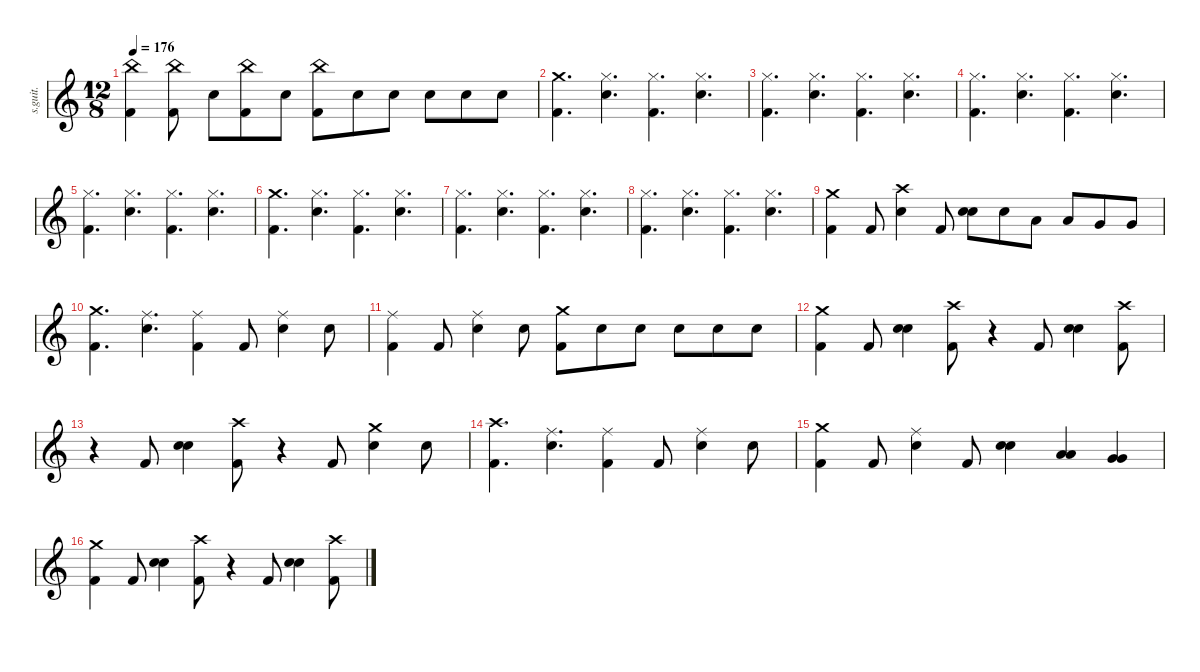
\defaultSystemsLayout 4
\hideDynamics
\bracketExtendMode nobrackets
\track ("Vinnie Paul" "s.guit.") {instrument percussion}
\staff {score}
\articulation defaults
\ts (12 8)
\tempo 176
\clef g2
\ks c
("China (hit)" "Kick (hit) 2").4{lyrics (0 "") lyrics (1 "") lyrics (2 "") lyrics (3 "") lyrics (4 "") dy f} ("China (hit)" "Kick (hit) 2").8{lyrics (0 "") lyrics (1 "") lyrics (2 "") lyrics (3 "") lyrics (4 "")} "Snare (hit) 2".8{lyrics (0 "") lyrics (1 "") lyrics (2 "") lyrics (3 "") lyrics (4 "")} ("China (hit)" "Kick (hit) 2").8{lyrics (0 "") lyrics (1 "") lyrics (2 "") lyrics (3 "") lyrics (4 "")} "Snare (hit) 2".8{lyrics (0 "") lyrics (1 "") lyrics (2 "") lyrics (3 "") lyrics (4 "")} ("China (hit)" "Kick (hit) 2").8{lyrics (0 "") lyrics (1 "") lyrics (2 "") lyrics (3 "") lyrics (4 "")} "Snare (hit) 2".8{lyrics (0 "") lyrics (1 "") lyrics (2 "") lyrics (3 "") lyrics (4 "")} "Snare (hit) 2".8{lyrics (0 "") lyrics (1 "") lyrics (2 "") lyrics (3 "") lyrics (4 "")} "Snare (hit) 2".8{lyrics (0 "") lyrics (1 "") lyrics (2 "") lyrics (3 "") lyrics (4 "")} "Snare (hit) 2".8{lyrics (0 "") lyrics (1 "") lyrics (2 "") lyrics (3 "") lyrics (4 "")} "Snare (hit) 2".8{lyrics (0 "") lyrics (1 "") lyrics (2 "") lyrics (3 "") lyrics (4 "")} |
("Crash medium (hit)" "Kick (hit) 2").4{d lyrics (0 "") lyrics (1 "") lyrics (2 "") lyrics (3 "") lyrics (4 "")} ("Hi-Hat (closed)" "Snare (hit) 2").4{d lyrics (0 "") lyrics (1 "") lyrics (2 "") lyrics (3 "") lyrics (4 "")} ("Hi-Hat (closed)" "Kick (hit) 2").4{d lyrics (0 "") lyrics (1 "") lyrics (2 "") lyrics (3 "") lyrics (4 "")} ("Hi-Hat (closed)" "Snare (hit) 2").4{d lyrics (0 "") lyrics (1 "") lyrics (2 "") lyrics (3 "") lyrics (4 "")} |
("Hi-Hat (closed)" "Kick (hit) 2").4{d lyrics (0 "") lyrics (1 "") lyrics (2 "") lyrics (3 "") lyrics (4 "")} ("Hi-Hat (closed)" "Snare (hit) 2").4{d lyrics (0 "") lyrics (1 "") lyrics (2 "") lyrics (3 "") lyrics (4 "")} ("Hi-Hat (closed)" "Kick (hit) 2").4{d lyrics (0 "") lyrics (1 "") lyrics (2 "") lyrics (3 "") lyrics (4 "")} ("Hi-Hat (closed)" "Snare (hit) 2").4{d lyrics (0 "") lyrics (1 "") lyrics (2 "") lyrics (3 "") lyrics (4 "")} |
("Hi-Hat (closed)" "Kick (hit) 2").4{d lyrics (0 "") lyrics (1 "") lyrics (2 "") lyrics (3 "") lyrics (4 "")} ("Hi-Hat (closed)" "Snare (hit) 2").4{d lyrics (0 "") lyrics (1 "") lyrics (2 "") lyrics (3 "") lyrics (4 "")} ("Hi-Hat (closed)" "Kick (hit) 2").4{d lyrics (0 "") lyrics (1 "") lyrics (2 "") lyrics (3 "") lyrics (4 "")} ("Hi-Hat (closed)" "Snare (hit) 2").4{d lyrics (0 "") lyrics (1 "") lyrics (2 "") lyrics (3 "") lyrics (4 "")} |
("Hi-Hat (closed)" "Kick (hit) 2").4{d lyrics (0 "") lyrics (1 "") lyrics (2 "") lyrics (3 "") lyrics (4 "")} ("Hi-Hat (closed)" "Snare (hit) 2").4{d lyrics (0 "") lyrics (1 "") lyrics (2 "") lyrics (3 "") lyrics (4 "")} ("Hi-Hat (closed)" "Kick (hit) 2").4{d lyrics (0 "") lyrics (1 "") lyrics (2 "") lyrics (3 "") lyrics (4 "")} ("Hi-Hat (closed)" "Snare (hit) 2").4{d lyrics (0 "") lyrics (1 "") lyrics (2 "") lyrics (3 "") lyrics (4 "")} |
("Crash medium (hit)" "Kick (hit) 2").4{d lyrics (0 "") lyrics (1 "") lyrics (2 "") lyrics (3 "") lyrics (4 "")} ("Hi-Hat (closed)" "Snare (hit) 2").4{d lyrics (0 "") lyrics (1 "") lyrics (2 "") lyrics (3 "") lyrics (4 "")} ("Hi-Hat (closed)" "Kick (hit) 2").4{d lyrics (0 "") lyrics (1 "") lyrics (2 "") lyrics (3 "") lyrics (4 "")} ("Hi-Hat (closed)" "Snare (hit) 2").4{d lyrics (0 "") lyrics (1 "") lyrics (2 "") lyrics (3 "") lyrics (4 "")} |
("Hi-Hat (closed)" "Kick (hit) 2").4{d lyrics (0 "") lyrics (1 "") lyrics (2 "") lyrics (3 "") lyrics (4 "")} ("Hi-Hat (closed)" "Snare (hit) 2").4{d lyrics (0 "") lyrics (1 "") lyrics (2 "") lyrics (3 "") lyrics (4 "")} ("Hi-Hat (closed)" "Kick (hit) 2").4{d lyrics (0 "") lyrics (1 "") lyrics (2 "") lyrics (3 "") lyrics (4 "")} ("Hi-Hat (closed)" "Snare (hit) 2").4{d lyrics (0 "") lyrics (1 "") lyrics (2 "") lyrics (3 "") lyrics (4 "")} |
("Hi-Hat (closed)" "Kick (hit) 2").4{d lyrics (0 "") lyrics (1 "") lyrics (2 "") lyrics (3 "") lyrics (4 "")} ("Hi-Hat (closed)" "Snare (hit) 2").4{d lyrics (0 "") lyrics (1 "") lyrics (2 "") lyrics (3 "") lyrics (4 "")} ("Hi-Hat (closed)" "Kick (hit) 2").4{d lyrics (0 "") lyrics (1 "") lyrics (2 "") lyrics (3 "") lyrics (4 "")} ("Hi-Hat (closed)" "Snare (hit) 2").4{d lyrics (0 "") lyrics (1 "") lyrics (2 "") lyrics (3 "") lyrics (4 "")} |
("Crash medium (hit)" "Kick (hit) 2").4{lyrics (0 "") lyrics (1 "") lyrics (2 "") lyrics (3 "") lyrics (4 "")} "Kick (hit) 2".8{lyrics (0 "") lyrics (1 "") lyrics (2 "") lyrics (3 "") lyrics (4 "")} ("Crash high (hit)" "Snare (hit) 2").4{lyrics (0 "") lyrics (1 "") lyrics (2 "") lyrics (3 "") lyrics (4 "")} "Kick (hit) 2".8{lyrics (0 "") lyrics (1 "") lyrics (2 "") lyrics (3 "") lyrics (4 "")} ("Snare (hit) 2" "Snare (hit) 2").8{lyrics (0 "") lyrics (1 "") lyrics (2 "") lyrics (3 "") lyrics (4 "")} "Snare (hit) 2".8{lyrics (0 "") lyrics (1 "") lyrics (2 "") lyrics (3 "") lyrics (4 "")} "Low Tom (hit)".8{lyrics (0 "") lyrics (1 "") lyrics (2 "") lyrics (3 "") lyrics (4 "")} "Low Tom (hit)".8{lyrics (0 "") lyrics (1 "") lyrics (2 "") lyrics (3 "") lyrics (4 "")} "Very Low Tom (hit)".8{lyrics (0 "") lyrics (1 "") lyrics (2 "") lyrics (3 "") lyrics (4 "")} "Very Low Tom (hit)".8{lyrics (0 "") lyrics (1 "") lyrics (2 "") lyrics (3 "") lyrics (4 "")} |
("Crash medium (hit)" "Kick (hit) 2").4{d lyrics (0 "") lyrics (1 "") lyrics (2 "") lyrics (3 "") lyrics (4 "")} ("Ride (middle)" "Snare (hit) 2").4{d lyrics (0 "") lyrics (1 "") lyrics (2 "") lyrics (3 "") lyrics (4 "")} ("Ride (middle)" "Kick (hit) 2").4{lyrics (0 "") lyrics (1 "") lyrics (2 "") lyrics (3 "") lyrics (4 "")} "Kick (hit) 2".8{lyrics (0 "") lyrics (1 "") lyrics (2 "") lyrics (3 "") lyrics (4 "")} ("Ride (middle)" "Snare (hit) 2").4{lyrics (0 "") lyrics (1 "") lyrics (2 "") lyrics (3 "") lyrics (4 "")} "Snare (hit) 2".8{lyrics (0 "") lyrics (1 "") lyrics (2 "") lyrics (3 "") lyrics (4 "")} |
("Ride (middle)" "Kick (hit) 2").4{lyrics (0 "") lyrics (1 "") lyrics (2 "") lyrics (3 "") lyrics (4 "")} "Kick (hit) 2".8{lyrics (0 "") lyrics (1 "") lyrics (2 "") lyrics (3 "") lyrics (4 "")} ("Ride (middle)" "Snare (hit) 2").4{lyrics (0 "") lyrics (1 "") lyrics (2 "") lyrics (3 "") lyrics (4 "")} "Snare (hit) 2".8{lyrics (0 "") lyrics (1 "") lyrics (2 "") lyrics (3 "") lyrics (4 "")} ("Crash medium (hit)" "Kick (hit) 2").8{lyrics (0 "") lyrics (1 "") lyrics (2 "") lyrics (3 "") lyrics (4 "")} "Snare (hit) 2".8{lyrics (0 "") lyrics (1 "") lyrics (2 "") lyrics (3 "") lyrics (4 "")} "Snare (hit) 2".8{lyrics (0 "") lyrics (1 "") lyrics (2 "") lyrics (3 "") lyrics (4 "")} "Snare (hit) 2".8{lyrics (0 "") lyrics (1 "") lyrics (2 "") lyrics (3 "") lyrics (4 "")} "Snare (hit) 2".8{lyrics (0 "") lyrics (1 "") lyrics (2 "") lyrics (3 "") lyrics (4 "")} "Snare (hit) 2".8{lyrics (0 "") lyrics (1 "") lyrics (2 "") lyrics (3 "") lyrics (4 "")} |
("Crash medium (hit)" "Kick (hit) 2").4{lyrics (0 "") lyrics (1 "") lyrics (2 "") lyrics (3 "") lyrics (4 "")} "Kick (hit) 2".8{lyrics (0 "") lyrics (1 "") lyrics (2 "") lyrics (3 "") lyrics (4 "")} ("Snare (hit) 2" "Snare (hit) 2").4{lyrics (0 "") lyrics (1 "") lyrics (2 "") lyrics (3 "") lyrics (4 "")} ("Crash high (hit)" "Kick (hit) 2").8{lyrics (0 "") lyrics (1 "") lyrics (2 "") lyrics (3 "") lyrics (4 "")} r.4 "Kick (hit) 2".8{lyrics (0 "") lyrics (1 "") lyrics (2 "") lyrics (3 "") lyrics (4 "")} ("Snare (hit) 2" "Snare (hit) 2").4{lyrics (0 "") lyrics (1 "") lyrics (2 "") lyrics (3 "") lyrics (4 "")} ("Crash high (hit)" "Kick (hit) 2").8{lyrics (0 "") lyrics (1 "") lyrics (2 "") lyrics (3 "") lyrics (4 "")} |
r.4 "Kick (hit) 2".8{lyrics (0 "") lyrics (1 "") lyrics (2 "") lyrics (3 "") lyrics (4 "")} ("Snare (hit) 2" "Snare (hit) 2").4{lyrics (0 "") lyrics (1 "") lyrics (2 "") lyrics (3 "") lyrics (4 "")} ("Crash high (hit)" "Kick (hit) 2").8{lyrics (0 "") lyrics (1 "") lyrics (2 "") lyrics (3 "") lyrics (4 "")} r.4 "Kick (hit) 2".8{lyrics (0 "") lyrics (1 "") lyrics (2 "") lyrics (3 "") lyrics (4 "")} ("Crash medium (hit)" "Snare (hit) 2").4{lyrics (0 "") lyrics (1 "") lyrics (2 "") lyrics (3 "") lyrics (4 "")} "Snare (hit) 2".8{lyrics (0 "") lyrics (1 "") lyrics (2 "") lyrics (3 "") lyrics (4 "")} |
("Crash high (hit)" "Kick (hit) 2").4{d lyrics (0 "") lyrics (1 "") lyrics (2 "") lyrics (3 "") lyrics (4 "")} ("Ride (middle)" "Snare (hit) 2").4{d lyrics (0 "") lyrics (1 "") lyrics (2 "") lyrics (3 "") lyrics (4 "")} ("Ride (middle)" "Kick (hit) 2").4{lyrics (0 "") lyrics (1 "") lyrics (2 "") lyrics (3 "") lyrics (4 "")} "Kick (hit) 2".8{lyrics (0 "") lyrics (1 "") lyrics (2 "") lyrics (3 "") lyrics (4 "")} ("Ride (middle)" "Snare (hit) 2").4{lyrics (0 "") lyrics (1 "") lyrics (2 "") lyrics (3 "") lyrics (4 "")} "Snare (hit) 2".8{lyrics (0 "") lyrics (1 "") lyrics (2 "") lyrics (3 "") lyrics (4 "")} |
("Crash medium (hit)" "Kick (hit) 2").4{lyrics (0 "") lyrics (1 "") lyrics (2 "") lyrics (3 "") lyrics (4 "")} "Kick (hit) 2".8{lyrics (0 "") lyrics (1 "") lyrics (2 "") lyrics (3 "") lyrics (4 "")} ("Ride (middle)" "Snare (hit) 2").4{lyrics (0 "") lyrics (1 "") lyrics (2 "") lyrics (3 "") lyrics (4 "")} "Kick (hit) 2".8{lyrics (0 "") lyrics (1 "") lyrics (2 "") lyrics (3 "") lyrics (4 "")} ("Snare (hit) 2" "Snare (hit) 2").4{lyrics (0 "") lyrics (1 "") lyrics (2 "") lyrics (3 "") lyrics (4 "")} ("Low Tom (hit)" "Low Tom (hit)").4{lyrics (0 "") lyrics (1 "") lyrics (2 "") lyrics (3 "") lyrics (4 "")} ("Very Low Tom (hit)" "Very Low Tom (hit)").4{lyrics (0 "") lyrics (1 "") lyrics (2 "") lyrics (3 "") lyrics (4 "")} |
("Crash medium (hit)" "Kick (hit) 2").4{lyrics (0 "") lyrics (1 "") lyrics (2 "") lyrics (3 "") lyrics (4 "")} "Kick (hit) 2".8{lyrics (0 "") lyrics (1 "") lyrics (2 "") lyrics (3 "") lyrics (4 "")} ("Snare (hit) 2" "Snare (hit) 2").4{lyrics (0 "") lyrics (1 "") lyrics (2 "") lyrics (3 "") lyrics (4 "")} ("Crash high (hit)" "Kick (hit) 2").8{lyrics (0 "") lyrics (1 "") lyrics (2 "") lyrics (3 "") lyrics (4 "")} r.4 "Kick (hit) 2".8{lyrics (0 "") lyrics (1 "") lyrics (2 "") lyrics (3 "") lyrics (4 "")} ("Snare (hit) 2" "Snare (hit) 2").4{lyrics (0 "") lyrics (1 "") lyrics (2 "") lyrics (3 "") lyrics (4 "")} ("Crash high (hit)" "Kick (hit) 2").8{lyrics (0 "") lyrics (1 "") lyrics (2 "") lyrics (3 "") lyrics (4 "")}
